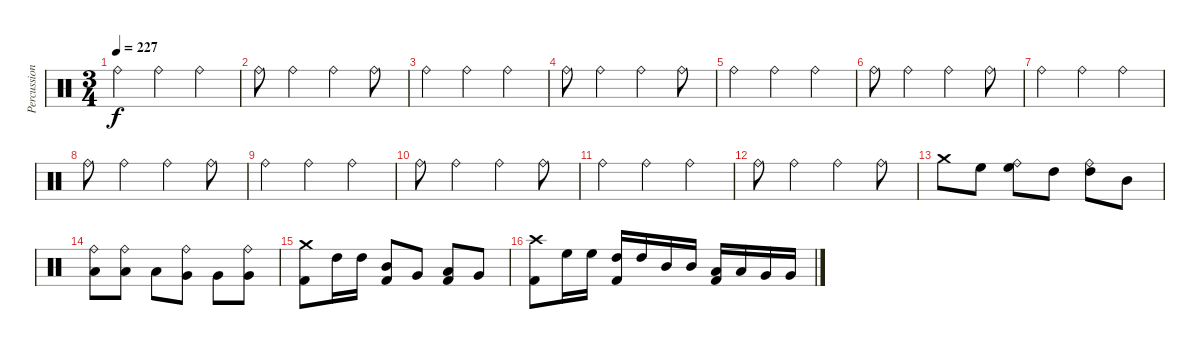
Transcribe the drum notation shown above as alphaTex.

\track ("Percussion" "Percussion") {instrument percussion}
\staff {score}
\articulation defaults
\ts (3 4)
\tempo 227
\clef neutral
\ks c "Ride (bell)".4{dy f} "Ride (bell)".4 "Ride (bell)".4
|
"Ride (bell)".8 "Ride (bell)".4 "Ride (bell)".4 "Ride (bell)".8 |
"Ride (bell)".4 "Ride (bell)".4 "Ride (bell)".4 |
"Ride (bell)".8 "Ride (bell)".4 "Ride (bell)".4 "Ride (bell)".8 |
"Ride (bell)".4 "Ride (bell)".4 "Ride (bell)".4 |
"Ride (bell)".8 "Ride (bell)".4 "Ride (bell)".4 "Ride (bell)".8 |
"Ride (bell)".4 "Ride (bell)".4 "Ride (bell)".4 |
"Ride (bell)".8 "Ride (bell)".4 "Ride (bell)".4 "Ride (bell)".8 |
"Ride (bell)".4 "Ride (bell)".4 "Ride (bell)".4 |
"Ride (bell)".8 "Ride (bell)".4 "Ride (bell)".4 "Ride (bell)".8 |
"Ride (bell)".4 "Ride (bell)".4 "Ride (bell)".4 |
"Ride (bell)".8 "Ride (bell)".4 "Ride (bell)".4 "Ride (bell)".8 |
"Crash medium (hit)".8 "High Floor Tom (hit)".8 ("Ride (bell)" "High Floor Tom (hit)").8 "High Tom (hit)".8 ("Ride (bell)" "High Tom (hit)").8 "Mid Tom (hit)".8 |
("Ride (bell)" "Low Tom (hit)").8 ("Ride (bell)" "Low Tom (hit)").8 "Low Tom (hit)".8 ("Ride (bell)" "Very Low Tom (hit)").8 "Very Low Tom (hit)".8 ("Ride (bell)" "Very Low Tom (hit)").8 |
("Crash medium (hit)" "Kick (hit) 2").8 "High Tom (hit)".16 "High Tom (hit)".16 ("Mid Tom (hit)" "Kick (hit) 2").8 "Very Low Tom (hit)".8 ("Low Tom (hit)" "Kick (hit) 2").8 "Very Low Tom (hit)".8 |
("Crash high (hit)" "Kick (hit) 2").8 "High Floor Tom (hit)".16 "High Floor Tom (hit)".16 ("High Tom (hit)" "Kick (hit) 2").16 "High Tom (hit)".16 "Mid Tom (hit)".16 "Mid Tom (hit)".16 ("Low Tom (hit)" "Kick (hit) 2").16 "Low Tom (hit)".16 "Very Low Tom (hit)".16 "Very Low Tom (hit)".16
